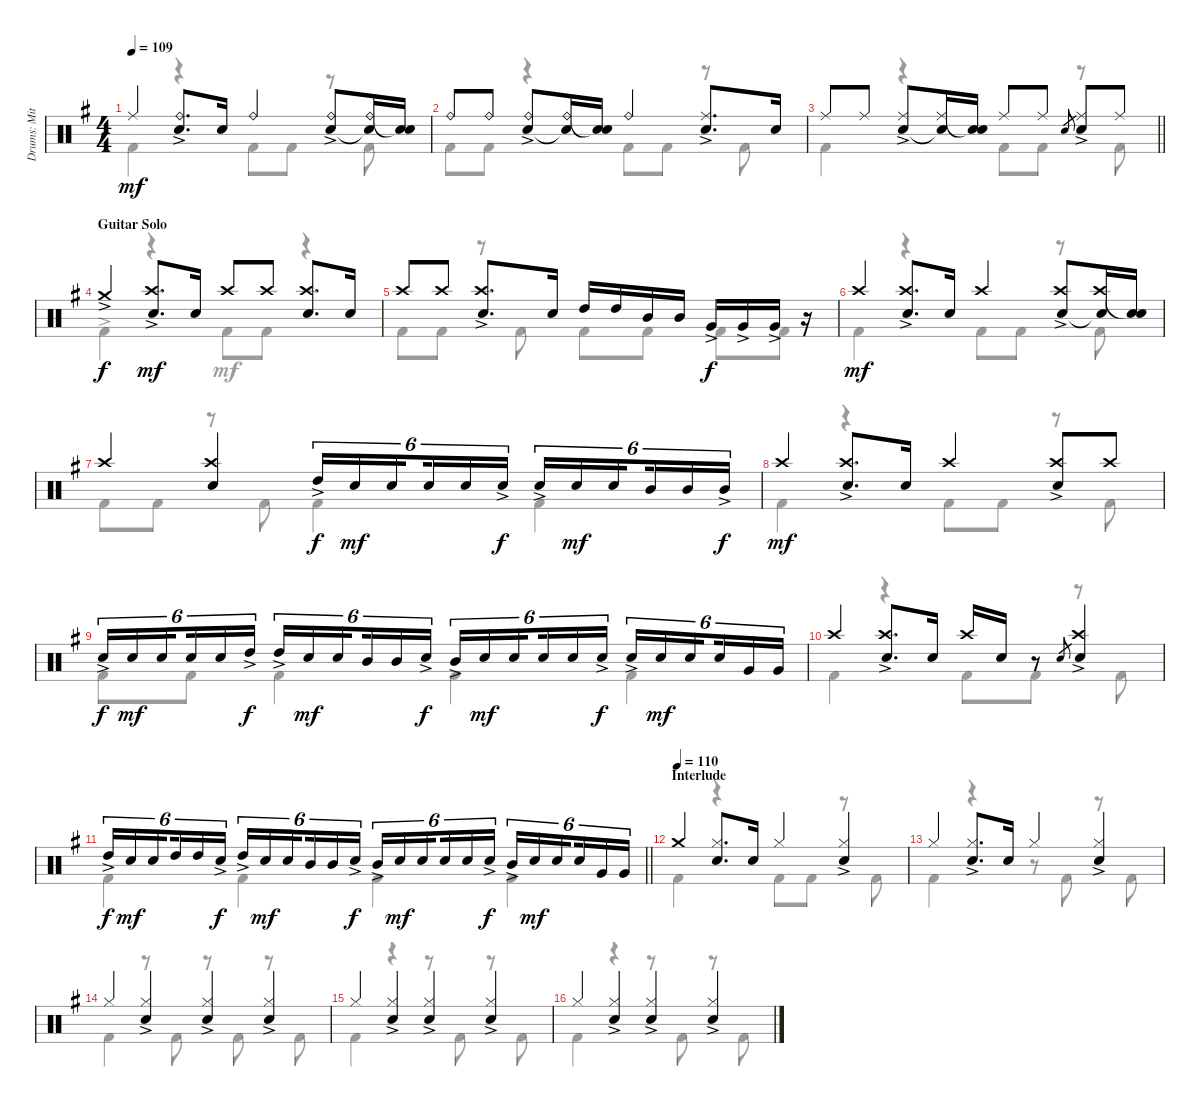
\track ("Drums: Mitch Mitchell" "Drums: Mit") {instrument percussion}
\staff {score}
\articulation defaults
\voice
\ts (4 4)
\tempo 109
\clef neutral
\ks g "Ride (middle)".4{dy mf}
("Ride (bell)" "Snare (hit) 2"{ac}).8{d} "Snare (hit) 2".16 "Ride (bell)".4 ("Ride (bell)" "Snare (hit) 2"{ac}).8 ("Ride (bell)" "Snare (hit)"{t}).16 ("Snare (hit)"{t} "Snare (hit) 2").16 |
"Ride (bell)".8 "Ride (bell)".8 ("Ride (bell)" "Snare (hit) 2"{ac}).8 ("Ride (bell)" "Snare (hit)"{t}).16 ("Snare (hit)"{t} "Snare (hit) 2").16 "Ride (bell)".4 ("Ride (middle)" "Snare (hit) 2"{ac}).8{d} "Snare (hit) 2".16 |
\barLineRight lightlight "Ride (middle)".8 "Ride (middle)".8
("Ride (middle)" "Snare (hit) 2"{ac}).8 ("Ride (middle)" "Snare (hit)"{t}).16 ("Snare (hit)"{t} "Snare (hit) 2").16 "Ride (middle)".8 "Ride (middle)".8 "Snare (hit) 2".8{gr} ("Ride (middle)" "Snare (hit) 2"{ac}).8 "Ride (middle)".8 |
\section ("" "Guitar Solo")
"Crash medium (hit)"{ac}.4{dy f} ("Crash high (hit)" "Snare (hit) 2"{ac}).8{d dy mf} "Snare (hit) 2".16 "Crash high (hit)".8 "Crash high (hit)".8 ("Crash high (hit)" "Snare (hit) 2").8{d} "Snare (hit) 2".16 |
"Crash high (hit)".8 "Crash high (hit)".8 ("Crash high (hit)" "Snare (hit) 2"{ac}).8{d} "Snare (hit) 2".16 "High Tom (hit)".16 "High Tom (hit)".16 "Mid Tom (hit)".16 "Mid Tom (hit)".16 "Very Low Tom (hit)"{ac}.16{dy f} "Very Low Tom (hit)"{ac}.16 "Very Low Tom (hit)"{ac}.16 r.16 |
"Crash high (hit)".4{dy mf} ("Crash high (hit)"{ac} "Snare (hit) 2").8{d} "Snare (hit) 2".16 "Crash high (hit)".4 ("Crash high (hit)"{ac} "Snare (hit) 2").8 ("Crash high (hit)" "Snare (hit)"{t}).16 ("Snare (hit)"{t} "Snare (hit) 2").16 |
"Crash high (hit)".4 ("Crash high (hit)" "Snare (hit) 2").4 "High Tom (hit)"{ac}.16{tu (6 4) dy f} "Snare (hit) 2".16{tu (6 4) dy mf} "Snare (hit) 2".16{tu (6 4) beam splitsecondary} "Snare (hit) 2".16{tu (6 4)} "Snare (hit) 2".16{tu (6 4)} "Snare (hit) 2"{ac}.16{tu (6 4) dy f} "Snare (hit) 2"{ac}.16{tu (6 4)} "Snare (hit) 2".16{tu (6 4) dy mf} "Snare (hit) 2".16{tu (6 4) beam splitsecondary} "Mid Tom (hit)".16{tu (6 4)} "Mid Tom (hit)".16{tu (6 4)} "Mid Tom (hit)"{ac}.16{tu (6 4) dy f} |
"Crash high (hit)".4{dy mf} ("Crash high (hit)"{ac} "Snare (hit) 2").8{d} "Snare (hit) 2".16 "Crash high (hit)".4 ("Crash high (hit)"{ac} "Snare (hit) 2").8 "Crash high (hit)".8 |
"Snare (hit) 2"{ac}.16{tu (6 4) dy f} "Snare (hit) 2".16{tu (6 4) dy mf} "Snare (hit) 2".16{tu (6 4) beam splitsecondary} "Snare (hit) 2".16{tu (6 4)} "Snare (hit) 2".16{tu (6 4)} "High Tom (hit)"{ac}.16{tu (6 4) dy f} "High Tom (hit)"{ac}.16{tu (6 4)} "Snare (hit) 2".16{tu (6 4) dy mf} "Snare (hit) 2".16{tu (6 4) beam splitsecondary} "Mid Tom (hit)".16{tu (6 4)} "Mid Tom (hit)".16{tu (6 4)} "Snare (hit) 2"{ac}.16{tu (6 4) dy f} "Mid Tom (hit)"{ac}.16{tu (6 4)} "Snare (hit) 2".16{tu (6 4) dy mf} "Snare (hit) 2".16{tu (6 4) beam splitsecondary} "Snare (hit) 2".16{tu (6 4)} "Snare (hit) 2".16{tu (6 4)} "Snare (hit) 2"{ac}.16{tu (6 4) dy f} "Snare (hit) 2"{ac}.16{tu (6 4)} "Snare (hit) 2".16{tu (6 4) dy mf} "Snare (hit) 2".16{tu (6 4) beam splitsecondary} "Snare (hit) 2".16{tu (6 4)} "Very Low Tom (hit)".16{tu (6 4)} "Very Low Tom (hit)".16{tu (6 4)} |
"Crash high (hit)".4 ("Crash high (hit)"{ac} "Snare (hit) 2").8{d} "Snare (hit) 2".16 "Crash high (hit)".16 "Snare (hit) 2".16 r.8 "Snare (hit) 2".8{gr} ("Crash high (hit)" "Snare (hit) 2"{ac}).4 |
\barLineRight lightlight "High Tom (hit)"{ac}.16{tu (6 4) dy f} "Snare (hit) 2".16{tu (6 4) dy mf} "Snare (hit) 2".16{tu (6 4) beam splitsecondary} "High Tom (hit)".16{tu (6 4)} "High Tom (hit)".16{tu (6 4)} "Snare (hit) 2"{ac}.16{tu (6 4) dy f} "High Tom (hit)"{ac}.16{tu (6 4)} "Snare (hit) 2".16{tu (6 4) dy mf} "Snare (hit) 2".16{tu (6 4) beam splitsecondary} "Mid Tom (hit)".16{tu (6 4)} "Mid Tom (hit)".16{tu (6 4)} "Snare (hit) 2"{ac}.16{tu (6 4) dy f} "Mid Tom (hit)"{ac}.16{tu (6 4)} "Snare (hit) 2".16{tu (6 4) dy mf} "Snare (hit) 2".16{tu (6 4) beam splitsecondary} "Snare (hit) 2".16{tu (6 4)} "Snare (hit) 2".16{tu (6 4)} "Snare (hit) 2"{ac}.16{tu (6 4) dy f} "Mid Tom (hit)"{ac}.16{tu (6 4)} "Snare (hit) 2".16{tu (6 4) dy mf} "Snare (hit) 2".16{tu (6 4) beam splitsecondary} "Snare (hit) 2".16{tu (6 4)} "Very Low Tom (hit)".16{tu (6 4)} "Very Low Tom (hit)".16{tu (6 4)}
|
\section ("" "Interlude")
\tempo (110)
"Crash medium (hit)".4 ("Hi-Hat (closed)" "Snare (hit) 2").8{d} "Snare (hit) 2".16 "Hi-Hat (closed)".4 ("Hi-Hat (closed)"{ac} "Snare (hit) 2").4 |
"Hi-Hat (closed)".4 ("Hi-Hat (closed)"{ac} "Snare (hit) 2").8{d} "Snare (hit) 2".16 "Hi-Hat (closed)".4 ("Hi-Hat (closed)"{ac} "Snare (hit) 2").4 |
"Hi-Hat (closed)".4 ("Hi-Hat (closed)"{ac} "Snare (hit) 2").4 ("Hi-Hat (closed)"{ac} "Snare (hit) 2").4 ("Hi-Hat (closed)"{ac} "Snare (hit) 2").4 |
"Hi-Hat (closed)".4 ("Hi-Hat (closed)"{ac} "Snare (hit) 2").4 ("Hi-Hat (closed)"{ac} "Snare (hit) 2").4 ("Hi-Hat (closed)"{ac} "Snare (hit) 2").4 |
"Hi-Hat (closed)".4 ("Hi-Hat (closed)"{ac} "Snare (hit) 2").4 ("Hi-Hat (closed)"{ac} "Snare (hit) 2").4 ("Hi-Hat (closed)"{ac} "Snare (hit) 2").4
\voice
\clef neutral
\ottava regular
\simile none
\ks g "Kick (hit) 2".4{dy mf}
r.4 "Kick (hit) 2".8 "Kick (hit) 2".8 r.8 "Kick (hit) 2".8 |
"Kick (hit) 2".8 "Kick (hit) 2".8 r.4 "Kick (hit) 2".8 "Kick (hit) 2".8 r.8 "Kick (hit) 2".8 |
\barLineRight lightlight "Kick (hit) 2".4
r.4 "Kick (hit) 2".8 "Kick (hit) 2".8 r.8 "Kick (hit) 2".8 |
"Kick (hit) 2"{ac}.4{dy f} r.4 "Kick (hit) 2".8{dy mf} "Kick (hit) 2".8 r.4 |
"Kick (hit) 2".8 "Kick (hit) 2".8 r.8 "Kick (hit) 2".8 "Kick (hit) 2".8 "Kick (hit) 2".8 "Kick (hit) 2".8 "Kick (hit) 2".8 |
"Kick (hit) 2".4 r.4 "Kick (hit) 2".8 "Kick (hit) 2".8 r.8 "Kick (hit) 2".8 |
"Kick (hit) 2".8 "Kick (hit) 2".8 r.8 "Kick (hit) 2".8 "Kick (hit) 2".4 "Kick (hit) 2".4 |
"Kick (hit) 2".4 r.4 "Kick (hit) 2".8 "Kick (hit) 2".8 r.8 "Kick (hit) 2".8 |
"Kick (hit) 2".8 "Kick (hit) 2".8 "Kick (hit) 2".4 "Kick (hit) 2".4 "Kick (hit) 2".4 |
"Kick (hit) 2".4 r.4 "Kick (hit) 2".8 "Kick (hit) 2".8 r.8 "Kick (hit) 2".8 |
\barLineRight lightlight "Kick (hit) 2".4 "Kick (hit) 2".4 "Kick (hit) 2".4 "Kick (hit) 2".4
|
"Kick (hit) 2".4 r.4 "Kick (hit) 2".8 "Kick (hit) 2".8 r.8 "Kick (hit) 2".8 |
"Kick (hit) 2".4 r.4 r.8 "Kick (hit) 2".8 r.8 "Kick (hit) 2".8 |
"Kick (hit) 2".4 r.8 "Kick (hit) 2".8 r.8 "Kick (hit) 2".8 r.8 "Kick (hit) 2".8 |
"Kick (hit) 2".4 r.4 r.8 "Kick (hit) 2".8 r.8 "Kick (hit) 2".8 |
"Kick (hit) 2".4 r.4 r.8 "Kick (hit) 2".8 r.8 "Kick (hit) 2".8
